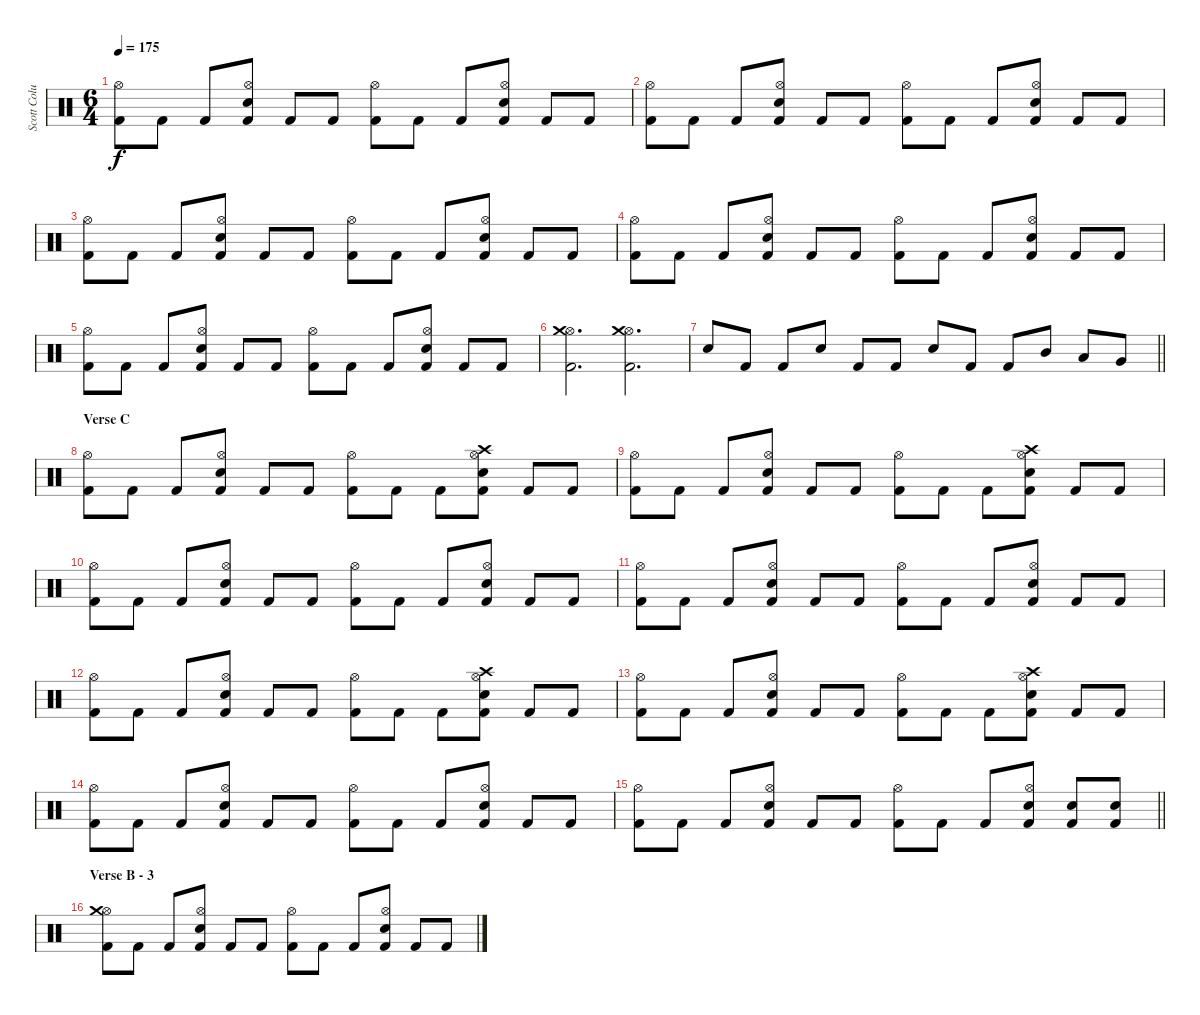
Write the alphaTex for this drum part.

\track ("Scott Columbus" "Scott Colu") {instrument percussion}
\staff {score}
\articulation defaults
\ts (6 4)
\tempo 175
\clef neutral
\ks c
("Kick (hit) 2" "Hi-Hat (open)").8{dy f} "Kick (hit) 2".8 "Kick (hit) 2".8 ("Kick (hit) 2" "Snare (hit) 2" "Hi-Hat (open)").8 "Kick (hit) 2".8 "Kick (hit) 2".8 ("Kick (hit) 2" "Hi-Hat (open)").8 "Kick (hit) 2".8 "Kick (hit) 2".8 ("Kick (hit) 2" "Snare (hit) 2" "Hi-Hat (open)").8 "Kick (hit) 2".8 "Kick (hit) 2".8 |
("Kick (hit) 2" "Hi-Hat (open)").8 "Kick (hit) 2".8 "Kick (hit) 2".8 ("Kick (hit) 2" "Snare (hit) 2" "Hi-Hat (open)").8 "Kick (hit) 2".8 "Kick (hit) 2".8 ("Kick (hit) 2" "Hi-Hat (open)").8 "Kick (hit) 2".8 "Kick (hit) 2".8 ("Kick (hit) 2" "Snare (hit) 2" "Hi-Hat (open)").8 "Kick (hit) 2".8 "Kick (hit) 2".8 |
("Kick (hit) 2" "Hi-Hat (open)").8 "Kick (hit) 2".8 "Kick (hit) 2".8 ("Kick (hit) 2" "Snare (hit) 2" "Hi-Hat (open)").8 "Kick (hit) 2".8 "Kick (hit) 2".8 ("Kick (hit) 2" "Hi-Hat (open)").8 "Kick (hit) 2".8 "Kick (hit) 2".8 ("Kick (hit) 2" "Snare (hit) 2" "Hi-Hat (open)").8 "Kick (hit) 2".8 "Kick (hit) 2".8 |
("Kick (hit) 2" "Hi-Hat (open)").8 "Kick (hit) 2".8 "Kick (hit) 2".8 ("Kick (hit) 2" "Snare (hit) 2" "Hi-Hat (open)").8 "Kick (hit) 2".8 "Kick (hit) 2".8 ("Kick (hit) 2" "Hi-Hat (open)").8 "Kick (hit) 2".8 "Kick (hit) 2".8 ("Kick (hit) 2" "Snare (hit) 2" "Hi-Hat (open)").8 "Kick (hit) 2".8 "Kick (hit) 2".8 |
("Kick (hit) 2" "Hi-Hat (open)").8 "Kick (hit) 2".8 "Kick (hit) 2".8 ("Kick (hit) 2" "Snare (hit) 2" "Hi-Hat (open)").8 "Kick (hit) 2".8 "Kick (hit) 2".8 ("Kick (hit) 2" "Hi-Hat (open)").8 "Kick (hit) 2".8 "Kick (hit) 2".8 ("Kick (hit) 2" "Snare (hit) 2" "Hi-Hat (open)").8 "Kick (hit) 2".8 "Kick (hit) 2".8 |
("Kick (hit) 2" "Hi-Hat (open)" "Crash medium (hit)").2{d} ("Kick (hit) 2" "Hi-Hat (open)" "Crash medium (hit)").2{d} |
\barLineRight lightlight "Snare (hit) 2".8 "Kick (hit) 2".8 "Kick (hit) 2".8 "Snare (hit) 2".8 "Kick (hit) 2".8 "Kick (hit) 2".8 "Snare (hit) 2".8 "Kick (hit) 2".8 "Kick (hit) 2".8 "Mid Tom (hit)".8 "Low Tom (hit)".8 "Very Low Tom (hit)".8
|
\section ("" "Verse C")
("Kick (hit) 2" "Hi-Hat (open)").8 "Kick (hit) 2".8 "Kick (hit) 2".8 ("Kick (hit) 2" "Snare (hit) 2" "Hi-Hat (open)").8 "Kick (hit) 2".8 "Kick (hit) 2".8 ("Kick (hit) 2" "Hi-Hat (open)").8 "Kick (hit) 2".8 "Kick (hit) 2".8 ("Kick (hit) 2" "Snare (hit) 2" "Hi-Hat (open)" "Crash high (hit)").8 "Kick (hit) 2".8 "Kick (hit) 2".8 |
("Kick (hit) 2" "Hi-Hat (open)").8 "Kick (hit) 2".8 "Kick (hit) 2".8 ("Kick (hit) 2" "Snare (hit) 2" "Hi-Hat (open)").8 "Kick (hit) 2".8 "Kick (hit) 2".8 ("Kick (hit) 2" "Hi-Hat (open)").8 "Kick (hit) 2".8 "Kick (hit) 2".8 ("Kick (hit) 2" "Snare (hit) 2" "Hi-Hat (open)" "Crash high (hit)").8 "Kick (hit) 2".8 "Kick (hit) 2".8 |
("Kick (hit) 2" "Hi-Hat (open)").8 "Kick (hit) 2".8 "Kick (hit) 2".8 ("Kick (hit) 2" "Snare (hit) 2" "Hi-Hat (open)").8 "Kick (hit) 2".8 "Kick (hit) 2".8 ("Kick (hit) 2" "Hi-Hat (open)").8 "Kick (hit) 2".8 "Kick (hit) 2".8 ("Kick (hit) 2" "Snare (hit) 2" "Hi-Hat (open)").8 "Kick (hit) 2".8 "Kick (hit) 2".8 |
("Kick (hit) 2" "Hi-Hat (open)").8 "Kick (hit) 2".8 "Kick (hit) 2".8 ("Kick (hit) 2" "Snare (hit) 2" "Hi-Hat (open)").8 "Kick (hit) 2".8 "Kick (hit) 2".8 ("Kick (hit) 2" "Hi-Hat (open)").8 "Kick (hit) 2".8 "Kick (hit) 2".8 ("Kick (hit) 2" "Snare (hit) 2" "Hi-Hat (open)").8 "Kick (hit) 2".8 "Kick (hit) 2".8 |
("Kick (hit) 2" "Hi-Hat (open)").8 "Kick (hit) 2".8 "Kick (hit) 2".8 ("Kick (hit) 2" "Snare (hit) 2" "Hi-Hat (open)").8 "Kick (hit) 2".8 "Kick (hit) 2".8 ("Kick (hit) 2" "Hi-Hat (open)").8 "Kick (hit) 2".8 "Kick (hit) 2".8 ("Kick (hit) 2" "Snare (hit) 2" "Hi-Hat (open)" "Crash high (hit)").8 "Kick (hit) 2".8 "Kick (hit) 2".8 |
("Kick (hit) 2" "Hi-Hat (open)").8 "Kick (hit) 2".8 "Kick (hit) 2".8 ("Kick (hit) 2" "Snare (hit) 2" "Hi-Hat (open)").8 "Kick (hit) 2".8 "Kick (hit) 2".8 ("Kick (hit) 2" "Hi-Hat (open)").8 "Kick (hit) 2".8 "Kick (hit) 2".8 ("Kick (hit) 2" "Snare (hit) 2" "Hi-Hat (open)" "Crash high (hit)").8 "Kick (hit) 2".8 "Kick (hit) 2".8 |
("Kick (hit) 2" "Hi-Hat (open)").8 "Kick (hit) 2".8 "Kick (hit) 2".8 ("Kick (hit) 2" "Snare (hit) 2" "Hi-Hat (open)").8 "Kick (hit) 2".8 "Kick (hit) 2".8 ("Kick (hit) 2" "Hi-Hat (open)").8 "Kick (hit) 2".8 "Kick (hit) 2".8 ("Kick (hit) 2" "Snare (hit) 2" "Hi-Hat (open)").8 "Kick (hit) 2".8 "Kick (hit) 2".8 |
\barLineRight lightlight
("Kick (hit) 2" "Hi-Hat (open)").8 "Kick (hit) 2".8 "Kick (hit) 2".8 ("Kick (hit) 2" "Snare (hit) 2" "Hi-Hat (open)").8 "Kick (hit) 2".8 "Kick (hit) 2".8 ("Kick (hit) 2" "Hi-Hat (open)").8 "Kick (hit) 2".8 "Kick (hit) 2".8 ("Kick (hit) 2" "Snare (hit) 2" "Hi-Hat (open)").8 ("Kick (hit) 2" "Snare (hit) 2").8 ("Kick (hit) 2" "Snare (hit) 2").8 |
\section ("" "Verse B - 3")
("Kick (hit) 2" "Hi-Hat (open)" "Crash medium (hit)").8 "Kick (hit) 2".8 "Kick (hit) 2".8 ("Kick (hit) 2" "Snare (hit) 2" "Hi-Hat (open)").8 "Kick (hit) 2".8 "Kick (hit) 2".8 ("Kick (hit) 2" "Hi-Hat (open)").8 "Kick (hit) 2".8 "Kick (hit) 2".8 ("Kick (hit) 2" "Snare (hit) 2" "Hi-Hat (open)").8 "Kick (hit) 2".8 "Kick (hit) 2".8
